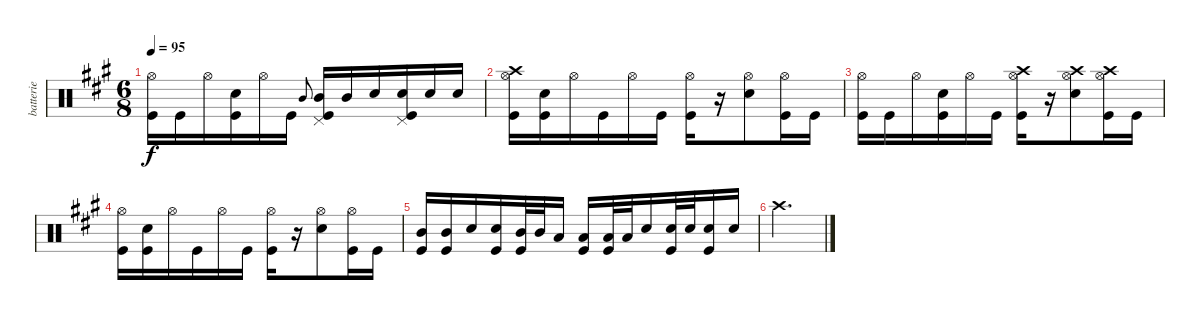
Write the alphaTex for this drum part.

\track ("batterie" "batterie") {instrument percussion}
\staff {score}
\articulation defaults
\ts (6 8)
\tempo 95
\clef neutral
\ks a
("Hi-Hat (open)" "Kick (hit)").16{dy f} "Kick (hit)".16 "Hi-Hat (open)".16 ("Electric Snare (hit)" "Kick (hit)").16 "Hi-Hat (open)".16 "Kick (hit)".16 "Mid Tom (hit)".8{gr onbeat} ("Pedal Hi-Hat (hit)" "Mid Tom (hit)" "Kick (hit)").16 "Mid Tom (hit)".16 "Electric Snare (hit)".16 ("Pedal Hi-Hat (hit)" "Electric Snare (hit)" "Kick (hit)").16 "Electric Snare (hit)".16 "Electric Snare (hit)".16 |
("Crash high (hit)" "Hi-Hat (open)" "Kick (hit)").16 ("Electric Snare (hit)" "Kick (hit)").16 "Hi-Hat (open)".16 "Kick (hit)".16 "Hi-Hat (open)".16 "Kick (hit)".16 ("Hi-Hat (open)" "Kick (hit)").16 r.16 ("Hi-Hat (open)" "Electric Snare (hit)").8 ("Hi-Hat (open)" "Kick (hit)").16 "Kick (hit)".16 |
("Hi-Hat (open)" "Kick (hit)").16 "Kick (hit)".16 "Hi-Hat (open)".16 ("Electric Snare (hit)" "Kick (hit)").16 "Hi-Hat (open)".16 "Kick (hit)".16 ("Crash high (hit)" "Hi-Hat (open)" "Kick (hit)").16 r.16 ("Crash high (hit)" "Hi-Hat (open)" "Electric Snare (hit)").8 ("Crash high (hit)" "Hi-Hat (open)" "Kick (hit)").16 "Kick (hit)".16 |
("Hi-Hat (open)" "Kick (hit)").16 ("Electric Snare (hit)" "Kick (hit)").16 "Hi-Hat (open)".16 "Kick (hit)".16 "Hi-Hat (open)".16 "Kick (hit)".16 ("Hi-Hat (open)" "Kick (hit)").16 r.16 ("Hi-Hat (open)" "Electric Snare (hit)").8 ("Hi-Hat (open)" "Kick (hit)").16 "Kick (hit)".16 |
("Mid Tom (hit)" "Kick (hit)").16 ("Mid Tom (hit)" "Kick (hit)").16 "Electric Snare (hit)".16 ("Electric Snare (hit)" "Kick (hit)").16 ("Mid Tom (hit)" "Kick (hit)").32 "Mid Tom (hit)".32 "Low Tom (hit)".16 ("Low Tom (hit)" "Kick (hit)").16 ("Low Tom (hit)" "Kick (hit)").32 "Low Tom (hit)".32 "Electric Snare (hit)".16 ("Electric Snare (hit)" "Kick (hit)").32 "Electric Snare (hit)".32 ("Electric Snare (hit)" "Kick (hit)").16 "Electric Snare (hit)".16 |
"Crash high (hit)".2{d}
